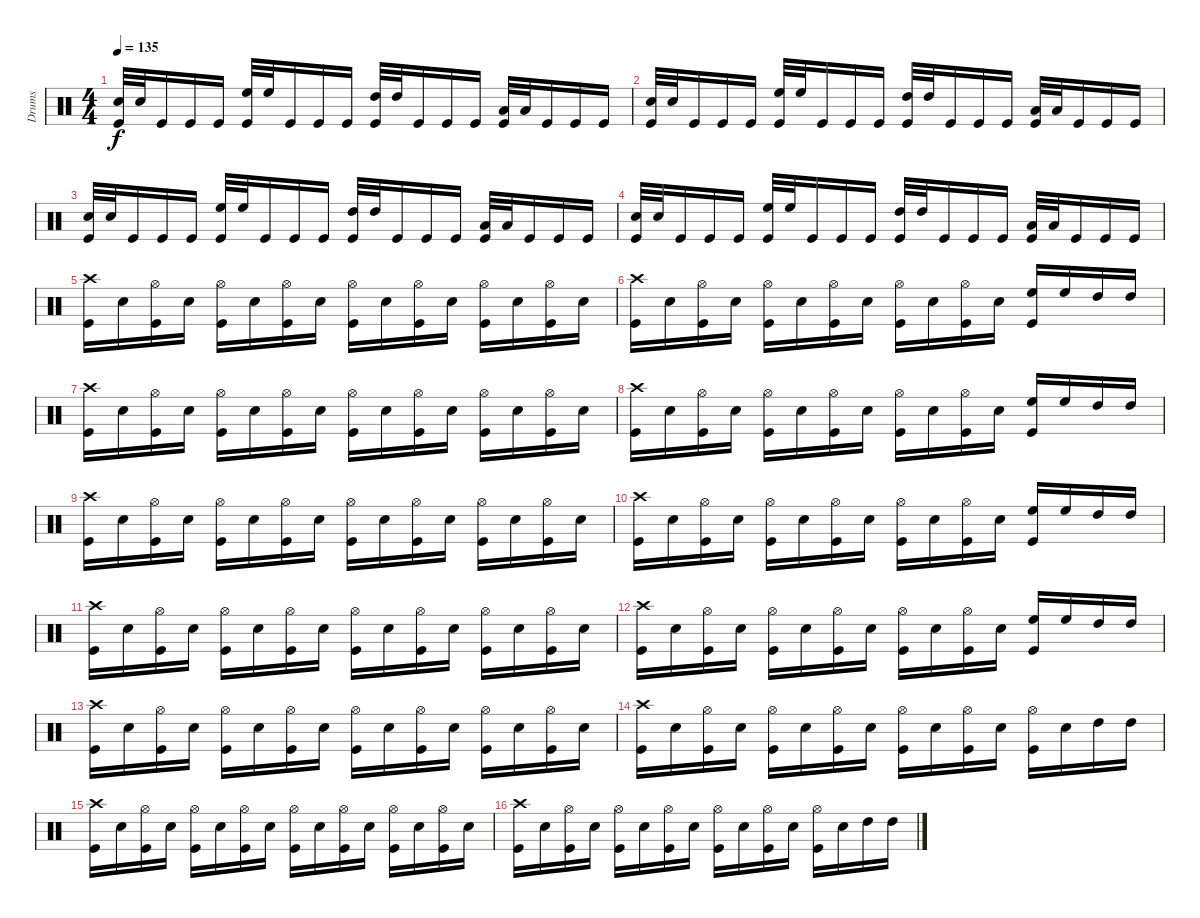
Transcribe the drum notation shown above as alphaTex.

\track ("Drums" "Drums") {instrument percussion}
\staff {score}
\articulation defaults
\ts (4 4)
\tempo 135
\clef neutral
\ks c
("Snare (hit) 2" "Kick (hit)").32{dy f} "Snare (hit) 2".32 "Kick (hit)".16 "Kick (hit)".16 "Kick (hit)".16 ("High Floor Tom (hit)" "Kick (hit)").32 "High Floor Tom (hit)".32 "Kick (hit)".16 "Kick (hit)".16 "Kick (hit)".16 ("High Tom (hit)" "Kick (hit)").32 "High Tom (hit)".32 "Kick (hit)".16 "Kick (hit)".16 "Kick (hit)".16 ("Low Tom (hit)" "Kick (hit)").32 "Low Tom (hit)".32 "Kick (hit)".16 "Kick (hit)".16 "Kick (hit)".16 |
("Snare (hit) 2" "Kick (hit)").32 "Snare (hit) 2".32 "Kick (hit)".16 "Kick (hit)".16 "Kick (hit)".16 ("High Floor Tom (hit)" "Kick (hit)").32 "High Floor Tom (hit)".32 "Kick (hit)".16 "Kick (hit)".16 "Kick (hit)".16 ("High Tom (hit)" "Kick (hit)").32 "High Tom (hit)".32 "Kick (hit)".16 "Kick (hit)".16 "Kick (hit)".16 ("Low Tom (hit)" "Kick (hit)").32 "Low Tom (hit)".32 "Kick (hit)".16 "Kick (hit)".16 "Kick (hit)".16 |
("Snare (hit) 2" "Kick (hit)").32 "Snare (hit) 2".32 "Kick (hit)".16 "Kick (hit)".16 "Kick (hit)".16 ("High Floor Tom (hit)" "Kick (hit)").32 "High Floor Tom (hit)".32 "Kick (hit)".16 "Kick (hit)".16 "Kick (hit)".16 ("High Tom (hit)" "Kick (hit)").32 "High Tom (hit)".32 "Kick (hit)".16 "Kick (hit)".16 "Kick (hit)".16 ("Low Tom (hit)" "Kick (hit)").32 "Low Tom (hit)".32 "Kick (hit)".16 "Kick (hit)".16 "Kick (hit)".16 |
("Snare (hit) 2" "Kick (hit)").32 "Snare (hit) 2".32 "Kick (hit)".16 "Kick (hit)".16 "Kick (hit)".16 ("High Floor Tom (hit)" "Kick (hit)").32 "High Floor Tom (hit)".32 "Kick (hit)".16 "Kick (hit)".16 "Kick (hit)".16 ("High Tom (hit)" "Kick (hit)").32 "High Tom (hit)".32 "Kick (hit)".16 "Kick (hit)".16 "Kick (hit)".16 ("Low Tom (hit)" "Kick (hit)").32 "Low Tom (hit)".32 "Kick (hit)".16 "Kick (hit)".16 "Kick (hit)".16 |
("Crash high (hit)" "Kick (hit)").16 "Snare (hit) 2".16 ("Hi-Hat (open)" "Kick (hit)").16 "Snare (hit) 2".16 ("Hi-Hat (open)" "Kick (hit)").16 "Snare (hit) 2".16 ("Hi-Hat (open)" "Kick (hit)").16 "Snare (hit) 2".16 ("Hi-Hat (open)" "Kick (hit)").16 "Snare (hit) 2".16 ("Hi-Hat (open)" "Kick (hit)").16 "Snare (hit) 2".16 ("Hi-Hat (open)" "Kick (hit)").16 "Snare (hit) 2".16 ("Hi-Hat (open)" "Kick (hit)").16 "Snare (hit) 2".16 |
("Crash high (hit)" "Kick (hit)").16 "Snare (hit) 2".16 ("Hi-Hat (open)" "Kick (hit)").16 "Snare (hit) 2".16 ("Hi-Hat (open)" "Kick (hit)").16 "Snare (hit) 2".16 ("Hi-Hat (open)" "Kick (hit)").16 "Snare (hit) 2".16 ("Hi-Hat (open)" "Kick (hit)").16 "Snare (hit) 2".16 ("Hi-Hat (open)" "Kick (hit)").16 "Snare (hit) 2".16 ("High Floor Tom (hit)" "Kick (hit)").16 "High Floor Tom (hit)".16 "High Tom (hit)".16 "High Tom (hit)".16 |
("Crash high (hit)" "Kick (hit)").16 "Snare (hit) 2".16 ("Hi-Hat (open)" "Kick (hit)").16 "Snare (hit) 2".16 ("Hi-Hat (open)" "Kick (hit)").16 "Snare (hit) 2".16 ("Hi-Hat (open)" "Kick (hit)").16 "Snare (hit) 2".16 ("Hi-Hat (open)" "Kick (hit)").16 "Snare (hit) 2".16 ("Hi-Hat (open)" "Kick (hit)").16 "Snare (hit) 2".16 ("Hi-Hat (open)" "Kick (hit)").16 "Snare (hit) 2".16 ("Hi-Hat (open)" "Kick (hit)").16 "Snare (hit) 2".16 |
("Crash high (hit)" "Kick (hit)").16 "Snare (hit) 2".16 ("Hi-Hat (open)" "Kick (hit)").16 "Snare (hit) 2".16 ("Hi-Hat (open)" "Kick (hit)").16 "Snare (hit) 2".16 ("Hi-Hat (open)" "Kick (hit)").16 "Snare (hit) 2".16 ("Hi-Hat (open)" "Kick (hit)").16 "Snare (hit) 2".16 ("Hi-Hat (open)" "Kick (hit)").16 "Snare (hit) 2".16 ("High Floor Tom (hit)" "Kick (hit)").16 "High Floor Tom (hit)".16 "High Tom (hit)".16 "High Tom (hit)".16 |
("Crash high (hit)" "Kick (hit)").16 "Snare (hit) 2".16 ("Hi-Hat (open)" "Kick (hit)").16 "Snare (hit) 2".16 ("Hi-Hat (open)" "Kick (hit)").16 "Snare (hit) 2".16 ("Hi-Hat (open)" "Kick (hit)").16 "Snare (hit) 2".16 ("Hi-Hat (open)" "Kick (hit)").16 "Snare (hit) 2".16 ("Hi-Hat (open)" "Kick (hit)").16 "Snare (hit) 2".16 ("Hi-Hat (open)" "Kick (hit)").16 "Snare (hit) 2".16 ("Hi-Hat (open)" "Kick (hit)").16 "Snare (hit) 2".16 |
("Crash high (hit)" "Kick (hit)").16 "Snare (hit) 2".16 ("Hi-Hat (open)" "Kick (hit)").16 "Snare (hit) 2".16 ("Hi-Hat (open)" "Kick (hit)").16 "Snare (hit) 2".16 ("Hi-Hat (open)" "Kick (hit)").16 "Snare (hit) 2".16 ("Hi-Hat (open)" "Kick (hit)").16 "Snare (hit) 2".16 ("Hi-Hat (open)" "Kick (hit)").16 "Snare (hit) 2".16 ("High Floor Tom (hit)" "Kick (hit)").16 "High Floor Tom (hit)".16 "High Tom (hit)".16 "High Tom (hit)".16 |
("Crash high (hit)" "Kick (hit)").16 "Snare (hit) 2".16 ("Hi-Hat (open)" "Kick (hit)").16 "Snare (hit) 2".16 ("Hi-Hat (open)" "Kick (hit)").16 "Snare (hit) 2".16 ("Hi-Hat (open)" "Kick (hit)").16 "Snare (hit) 2".16 ("Hi-Hat (open)" "Kick (hit)").16 "Snare (hit) 2".16 ("Hi-Hat (open)" "Kick (hit)").16 "Snare (hit) 2".16 ("Hi-Hat (open)" "Kick (hit)").16 "Snare (hit) 2".16 ("Hi-Hat (open)" "Kick (hit)").16 "Snare (hit) 2".16 |
("Crash high (hit)" "Kick (hit)").16 "Snare (hit) 2".16 ("Hi-Hat (open)" "Kick (hit)").16 "Snare (hit) 2".16 ("Hi-Hat (open)" "Kick (hit)").16 "Snare (hit) 2".16 ("Hi-Hat (open)" "Kick (hit)").16 "Snare (hit) 2".16 ("Hi-Hat (open)" "Kick (hit)").16 "Snare (hit) 2".16 ("Hi-Hat (open)" "Kick (hit)").16 "Snare (hit) 2".16 ("High Floor Tom (hit)" "Kick (hit)").16 "High Floor Tom (hit)".16 "High Tom (hit)".16 "High Tom (hit)".16 |
("Crash high (hit)" "Kick (hit)").16 "Snare (hit) 2".16 ("Hi-Hat (open)" "Kick (hit)").16 "Snare (hit) 2".16 ("Hi-Hat (open)" "Kick (hit)").16 "Snare (hit) 2".16 ("Hi-Hat (open)" "Kick (hit)").16 "Snare (hit) 2".16 ("Hi-Hat (open)" "Kick (hit)").16 "Snare (hit) 2".16 ("Hi-Hat (open)" "Kick (hit)").16 "Snare (hit) 2".16 ("Hi-Hat (open)" "Kick (hit)").16 "Snare (hit) 2".16 ("Hi-Hat (open)" "Kick (hit)").16 "Snare (hit) 2".16 |
("Crash high (hit)" "Kick (hit)").16 "Snare (hit) 2".16 ("Hi-Hat (open)" "Kick (hit)").16 "Snare (hit) 2".16 ("Hi-Hat (open)" "Kick (hit)").16 "Snare (hit) 2".16 ("Hi-Hat (open)" "Kick (hit)").16 "Snare (hit) 2".16 ("Hi-Hat (open)" "Kick (hit)").16 "Snare (hit) 2".16 ("Hi-Hat (open)" "Kick (hit)").16 "Snare (hit) 2".16 ("Hi-Hat (open)" "Kick (hit)").16 "Snare (hit) 2".16 "High Tom (hit)".16 "High Tom (hit)".16 |
("Crash high (hit)" "Kick (hit)").16 "Snare (hit) 2".16 ("Hi-Hat (open)" "Kick (hit)").16 "Snare (hit) 2".16 ("Hi-Hat (open)" "Kick (hit)").16 "Snare (hit) 2".16 ("Hi-Hat (open)" "Kick (hit)").16 "Snare (hit) 2".16 ("Hi-Hat (open)" "Kick (hit)").16 "Snare (hit) 2".16 ("Hi-Hat (open)" "Kick (hit)").16 "Snare (hit) 2".16 ("Hi-Hat (open)" "Kick (hit)").16 "Snare (hit) 2".16 ("Hi-Hat (open)" "Kick (hit)").16 "Snare (hit) 2".16 |
("Crash high (hit)" "Kick (hit)").16 "Snare (hit) 2".16 ("Hi-Hat (open)" "Kick (hit)").16 "Snare (hit) 2".16 ("Hi-Hat (open)" "Kick (hit)").16 "Snare (hit) 2".16 ("Hi-Hat (open)" "Kick (hit)").16 "Snare (hit) 2".16 ("Hi-Hat (open)" "Kick (hit)").16 "Snare (hit) 2".16 ("Hi-Hat (open)" "Kick (hit)").16 "Snare (hit) 2".16 ("Hi-Hat (open)" "Kick (hit)").16 "Snare (hit) 2".16 "High Tom (hit)".16 "High Tom (hit)".16
